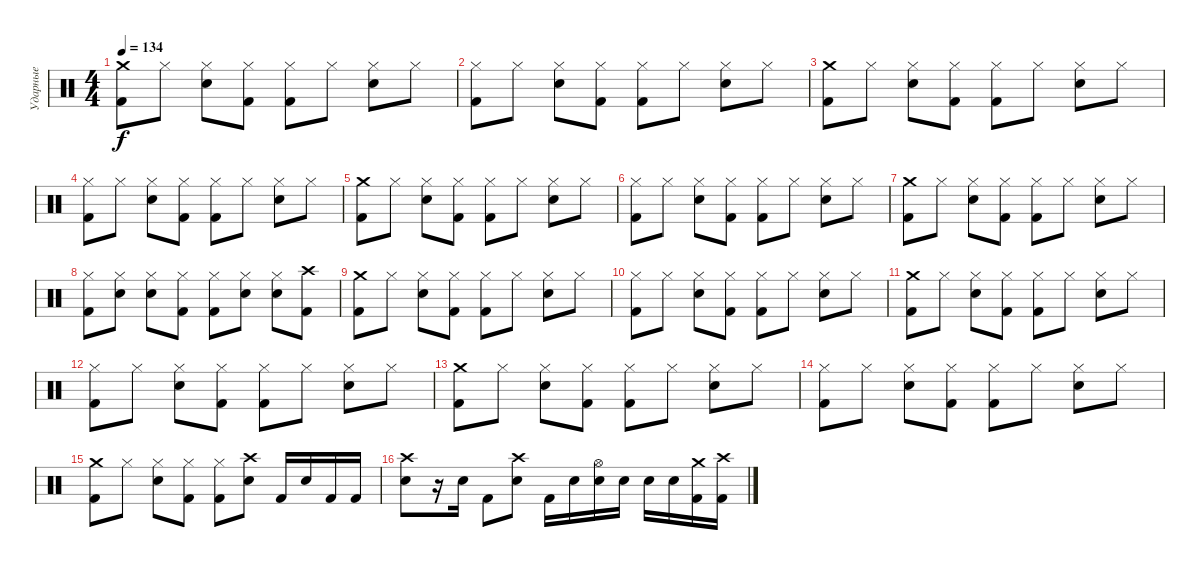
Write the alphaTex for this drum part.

\track ("Ударные" "Ударные") {instrument percussion}
\staff {score}
\articulation defaults
\ts (4 4)
\tempo 134
\clef neutral
\ks c
("Kick (hit) 2" "Crash medium (hit)").8{dy f} "Hi-Hat (closed)".8 ("Electric Snare (hit)" "Hi-Hat (closed)").8 ("Kick (hit) 2" "Hi-Hat (closed)").8 ("Kick (hit) 2" "Hi-Hat (closed)").8 "Hi-Hat (closed)".8 ("Electric Snare (hit)" "Hi-Hat (closed)").8 "Hi-Hat (closed)".8 |
("Kick (hit) 2" "Hi-Hat (closed)").8 "Hi-Hat (closed)".8 ("Electric Snare (hit)" "Hi-Hat (closed)").8 ("Kick (hit) 2" "Hi-Hat (closed)").8 ("Kick (hit) 2" "Hi-Hat (closed)").8 "Hi-Hat (closed)".8 ("Electric Snare (hit)" "Hi-Hat (closed)").8 "Hi-Hat (closed)".8 |
("Kick (hit) 2" "Crash medium (hit)").8 "Hi-Hat (closed)".8 ("Electric Snare (hit)" "Hi-Hat (closed)").8 ("Kick (hit) 2" "Hi-Hat (closed)").8 ("Kick (hit) 2" "Hi-Hat (closed)").8 "Hi-Hat (closed)".8 ("Electric Snare (hit)" "Hi-Hat (closed)").8 "Hi-Hat (closed)".8 |
("Kick (hit) 2" "Hi-Hat (closed)").8 "Hi-Hat (closed)".8 ("Electric Snare (hit)" "Hi-Hat (closed)").8 ("Kick (hit) 2" "Hi-Hat (closed)").8 ("Kick (hit) 2" "Hi-Hat (closed)").8 "Hi-Hat (closed)".8 ("Electric Snare (hit)" "Hi-Hat (closed)").8 "Hi-Hat (closed)".8 |
("Kick (hit) 2" "Crash medium (hit)").8 "Hi-Hat (closed)".8 ("Electric Snare (hit)" "Hi-Hat (closed)").8 ("Kick (hit) 2" "Hi-Hat (closed)").8 ("Kick (hit) 2" "Hi-Hat (closed)").8 "Hi-Hat (closed)".8 ("Electric Snare (hit)" "Hi-Hat (closed)").8 "Hi-Hat (closed)".8 |
("Kick (hit) 2" "Hi-Hat (closed)").8 "Hi-Hat (closed)".8 ("Electric Snare (hit)" "Hi-Hat (closed)").8 ("Kick (hit) 2" "Hi-Hat (closed)").8 ("Kick (hit) 2" "Hi-Hat (closed)").8 "Hi-Hat (closed)".8 ("Electric Snare (hit)" "Hi-Hat (closed)").8 "Hi-Hat (closed)".8 |
("Kick (hit) 2" "Crash medium (hit)").8 "Hi-Hat (closed)".8 ("Electric Snare (hit)" "Hi-Hat (closed)").8 ("Kick (hit) 2" "Hi-Hat (closed)").8 ("Kick (hit) 2" "Hi-Hat (closed)").8 "Hi-Hat (closed)".8 ("Electric Snare (hit)" "Hi-Hat (closed)").8 "Hi-Hat (closed)".8 |
("Kick (hit) 2" "Hi-Hat (closed)").8 ("Electric Snare (hit)" "Hi-Hat (closed)").8 ("Electric Snare (hit)" "Hi-Hat (closed)").8 ("Kick (hit) 2" "Hi-Hat (closed)").8 ("Kick (hit) 2" "Hi-Hat (closed)").8 ("Electric Snare (hit)" "Hi-Hat (closed)").8 ("Electric Snare (hit)" "Hi-Hat (closed)").8 ("Kick (hit) 2" "Crash high (hit)").8 |
("Kick (hit) 2" "Crash medium (hit)").8 "Hi-Hat (closed)".8 ("Electric Snare (hit)" "Hi-Hat (closed)").8 ("Kick (hit) 2" "Hi-Hat (closed)").8 ("Kick (hit) 2" "Hi-Hat (closed)").8 "Hi-Hat (closed)".8 ("Electric Snare (hit)" "Hi-Hat (closed)").8 "Hi-Hat (closed)".8 |
("Kick (hit) 2" "Hi-Hat (closed)").8 "Hi-Hat (closed)".8 ("Electric Snare (hit)" "Hi-Hat (closed)").8 ("Kick (hit) 2" "Hi-Hat (closed)").8 ("Kick (hit) 2" "Hi-Hat (closed)").8 "Hi-Hat (closed)".8 ("Electric Snare (hit)" "Hi-Hat (closed)").8 "Hi-Hat (closed)".8 |
("Kick (hit) 2" "Crash medium (hit)").8 "Hi-Hat (closed)".8 ("Electric Snare (hit)" "Hi-Hat (closed)").8 ("Kick (hit) 2" "Hi-Hat (closed)").8 ("Kick (hit) 2" "Hi-Hat (closed)").8 "Hi-Hat (closed)".8 ("Electric Snare (hit)" "Hi-Hat (closed)").8 "Hi-Hat (closed)".8 |
("Kick (hit) 2" "Hi-Hat (closed)").8 "Hi-Hat (closed)".8 ("Electric Snare (hit)" "Hi-Hat (closed)").8 ("Kick (hit) 2" "Hi-Hat (closed)").8 ("Kick (hit) 2" "Hi-Hat (closed)").8 "Hi-Hat (closed)".8 ("Electric Snare (hit)" "Hi-Hat (closed)").8 "Hi-Hat (closed)".8 |
("Kick (hit) 2" "Crash medium (hit)").8 "Hi-Hat (closed)".8 ("Electric Snare (hit)" "Hi-Hat (closed)").8 ("Kick (hit) 2" "Hi-Hat (closed)").8 ("Kick (hit) 2" "Hi-Hat (closed)").8 "Hi-Hat (closed)".8 ("Electric Snare (hit)" "Hi-Hat (closed)").8 "Hi-Hat (closed)".8 |
("Kick (hit) 2" "Hi-Hat (closed)").8 "Hi-Hat (closed)".8 ("Electric Snare (hit)" "Hi-Hat (closed)").8 ("Kick (hit) 2" "Hi-Hat (closed)").8 ("Kick (hit) 2" "Hi-Hat (closed)").8 "Hi-Hat (closed)".8 ("Electric Snare (hit)" "Hi-Hat (closed)").8 "Hi-Hat (closed)".8 |
("Kick (hit) 2" "Crash medium (hit)").8 "Hi-Hat (closed)".8 ("Electric Snare (hit)" "Hi-Hat (closed)").8 ("Kick (hit) 2" "Hi-Hat (closed)").8 ("Kick (hit) 2" "Hi-Hat (closed)").8 ("Electric Snare (hit)" "Crash high (hit)").8 "Kick (hit) 2".16 "Electric Snare (hit)".16 "Kick (hit) 2".16 "Kick (hit) 2".16 |
("Electric Snare (hit)" "Crash high (hit)").8 r.16 "Electric Snare (hit)".16 "Kick (hit) 2".8 ("Electric Snare (hit)" "Crash high (hit)").8 "Kick (hit) 2".16 "Electric Snare (hit)".16 ("Electric Snare (hit)" "Hi-Hat (open)").16 "Electric Snare (hit)".16 "Electric Snare (hit)".16 "Electric Snare (hit)".16 ("Kick (hit) 2" "Crash medium (hit)").16 ("Kick (hit) 2" "Crash high (hit)").16
